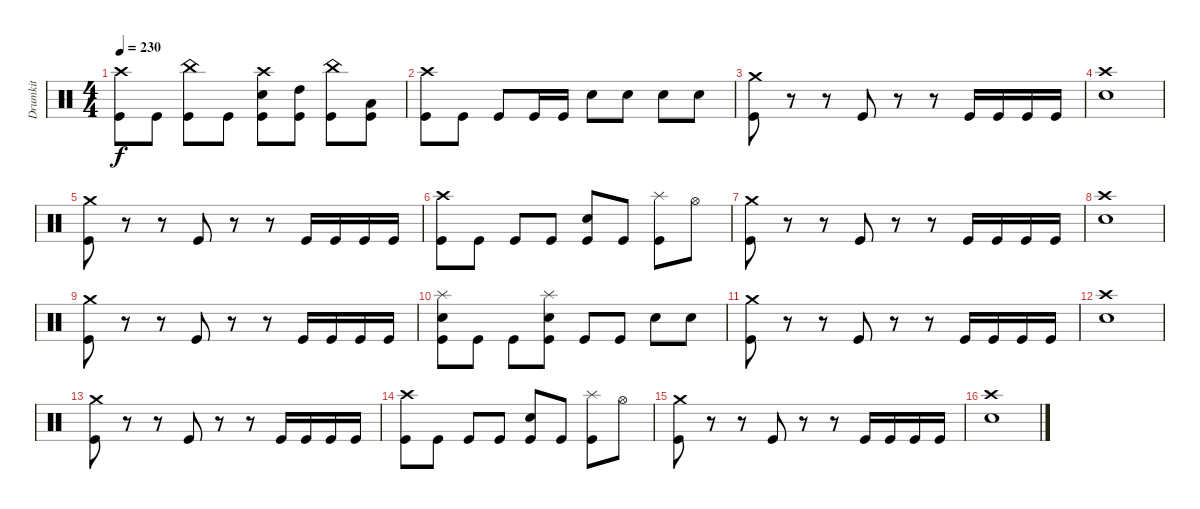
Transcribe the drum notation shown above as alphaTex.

\track ("Drumkit" "Drumkit") {instrument percussion}
\staff {score}
\articulation defaults
\ts (4 4)
\tempo 230
\clef neutral
\ks c
("Crash high (hit)" "Kick (hit)").8{dy f} "Kick (hit)".8 ("China (hit)" "Kick (hit)").8 "Kick (hit)".8 ("Crash high (hit)" "Snare (hit) 2" "Kick (hit)").8 ("High Tom (hit)" "Kick (hit)").8 ("China (hit)" "Kick (hit)").8 ("Low Tom (hit)" "Kick (hit)").8 |
("Crash high (hit)" "Kick (hit)").8 "Kick (hit)".8 "Kick (hit)".8 "Kick (hit)".16 "Kick (hit)".16 "Snare (hit) 2".8 "Snare (hit) 2".8 "Snare (hit) 2".8 "Snare (hit) 2".8 |
("Crash medium (hit)" "Kick (hit)").8 r.8 r.8 "Kick (hit)".8 r.8 r.8 "Kick (hit)".16 "Kick (hit)".16 "Kick (hit)".16 "Kick (hit)".16 |
("Crash high (hit)" "Snare (hit) 2").1 |
("Crash medium (hit)" "Kick (hit)").8 r.8 r.8 "Kick (hit)".8 r.8 r.8 "Kick (hit)".16 "Kick (hit)".16 "Kick (hit)".16 "Kick (hit)".16 |
("Crash high (hit)" "Kick (hit)").8 "Kick (hit)".8 "Kick (hit)".8 "Kick (hit)".8 ("Snare (hit) 2" "Kick (hit)").8 "Kick (hit)".8 ("Splash (hit)" "Kick (hit)").8 "Hi-Hat (open)".8 |
("Crash medium (hit)" "Kick (hit)").8 r.8 r.8 "Kick (hit)".8 r.8 r.8 "Kick (hit)".16 "Kick (hit)".16 "Kick (hit)".16 "Kick (hit)".16 |
("Crash high (hit)" "Snare (hit) 2").1 |
("Crash medium (hit)" "Kick (hit)").8 r.8 r.8 "Kick (hit)".8 r.8 r.8 "Kick (hit)".16 "Kick (hit)".16 "Kick (hit)".16 "Kick (hit)".16 |
("Splash (hit)" "Snare (hit) 2" "Kick (hit)").8 "Kick (hit)".8 "Kick (hit)".8 ("Splash (hit)" "Snare (hit) 2" "Kick (hit)").8 "Kick (hit)".8 "Kick (hit)".8 "Snare (hit) 2".8 "Snare (hit) 2".8 |
("Crash medium (hit)" "Kick (hit)").8 r.8 r.8 "Kick (hit)".8 r.8 r.8 "Kick (hit)".16 "Kick (hit)".16 "Kick (hit)".16 "Kick (hit)".16 |
("Crash high (hit)" "Snare (hit) 2").1 |
("Crash medium (hit)" "Kick (hit)").8 r.8 r.8 "Kick (hit)".8 r.8 r.8 "Kick (hit)".16 "Kick (hit)".16 "Kick (hit)".16 "Kick (hit)".16 |
("Crash high (hit)" "Kick (hit)").8 "Kick (hit)".8 "Kick (hit)".8 "Kick (hit)".8 ("Snare (hit) 2" "Kick (hit)").8 "Kick (hit)".8 ("Splash (hit)" "Kick (hit)").8 "Hi-Hat (open)".8 |
("Crash medium (hit)" "Kick (hit)").8 r.8 r.8 "Kick (hit)".8 r.8 r.8 "Kick (hit)".16 "Kick (hit)".16 "Kick (hit)".16 "Kick (hit)".16 |
("Crash high (hit)" "Snare (hit) 2").1
